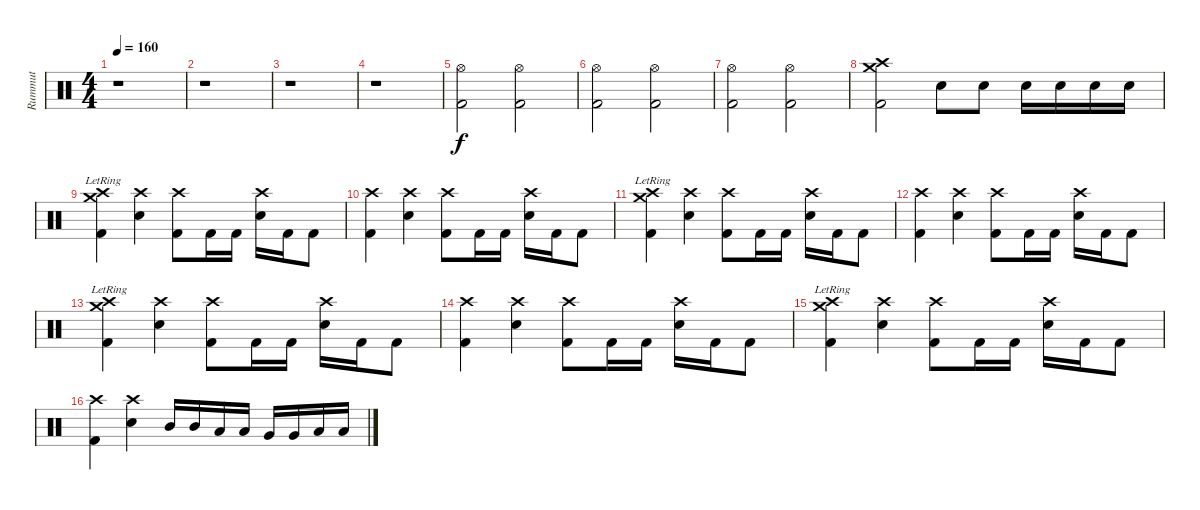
\track ("Rummut" "Rummut") {instrument percussion}
\staff {score}
\articulation defaults
\ts (4 4)
\tempo 160
\clef neutral
\ks c
r.1{dy f} |
r.1 |
r.1 |
r.1 |
("Hi-Hat (open)" "Kick (hit) 2").2 ("Hi-Hat (open)" "Kick (hit) 2").2 |
("Hi-Hat (open)" "Kick (hit) 2").2 ("Hi-Hat (open)" "Kick (hit) 2").2 |
("Hi-Hat (open)" "Kick (hit) 2").2 ("Hi-Hat (open)" "Kick (hit) 2").2 |
("Crash medium (hit)" "Crash high (hit)" "Kick (hit) 2").2 "Snare (hit) 2".8 "Snare (hit) 2".8 "Snare (hit) 2".16 "Snare (hit) 2".16 "Snare (hit) 2".16 "Snare (hit) 2".16 |
("Crash high (hit)" "Crash medium (hit)"{lr} "Kick (hit) 2").4 ("Crash high (hit)" "Snare (hit) 2").4 ("Crash high (hit)" "Kick (hit) 2").8 "Kick (hit) 2".16 "Kick (hit) 2".16 ("Crash high (hit)" "Snare (hit) 2").16 "Kick (hit) 2".16 "Kick (hit) 2".8 |
("Crash high (hit)" "Kick (hit) 2").4 ("Crash high (hit)" "Snare (hit) 2").4 ("Crash high (hit)" "Kick (hit) 2").8 "Kick (hit) 2".16 "Kick (hit) 2".16 ("Crash high (hit)" "Snare (hit) 2").16 "Kick (hit) 2".16 "Kick (hit) 2".8 |
("Crash high (hit)" "Crash medium (hit)"{lr} "Kick (hit) 2").4 ("Crash high (hit)" "Snare (hit) 2").4 ("Crash high (hit)" "Kick (hit) 2").8 "Kick (hit) 2".16 "Kick (hit) 2".16 ("Crash high (hit)" "Snare (hit) 2").16 "Kick (hit) 2".16 "Kick (hit) 2".8 |
("Crash high (hit)" "Kick (hit) 2").4 ("Crash high (hit)" "Snare (hit) 2").4 ("Crash high (hit)" "Kick (hit) 2").8 "Kick (hit) 2".16 "Kick (hit) 2".16 ("Crash high (hit)" "Snare (hit) 2").16 "Kick (hit) 2".16 "Kick (hit) 2".8 |
("Crash high (hit)" "Crash medium (hit)"{lr} "Kick (hit) 2").4 ("Crash high (hit)" "Snare (hit) 2").4 ("Crash high (hit)" "Kick (hit) 2").8 "Kick (hit) 2".16 "Kick (hit) 2".16 ("Crash high (hit)" "Snare (hit) 2").16 "Kick (hit) 2".16 "Kick (hit) 2".8 |
("Crash high (hit)" "Kick (hit) 2").4 ("Crash high (hit)" "Snare (hit) 2").4 ("Crash high (hit)" "Kick (hit) 2").8 "Kick (hit) 2".16 "Kick (hit) 2".16 ("Crash high (hit)" "Snare (hit) 2").16 "Kick (hit) 2".16 "Kick (hit) 2".8 |
("Crash high (hit)" "Crash medium (hit)"{lr} "Kick (hit) 2").4 ("Crash high (hit)" "Snare (hit) 2").4 ("Crash high (hit)" "Kick (hit) 2").8 "Kick (hit) 2".16 "Kick (hit) 2".16 ("Crash high (hit)" "Snare (hit) 2").16 "Kick (hit) 2".16 "Kick (hit) 2".8 |
("Crash high (hit)" "Kick (hit) 2").4 ("Crash high (hit)" "Snare (hit) 2").4 "Mid Tom (hit)".16 "Mid Tom (hit)".16 "Low Tom (hit)".16 "Low Tom (hit)".16 "Very Low Tom (hit)".16 "Very Low Tom (hit)".16 "Low Floor Tom (hit)".16 "Low Floor Tom (hit)".16
